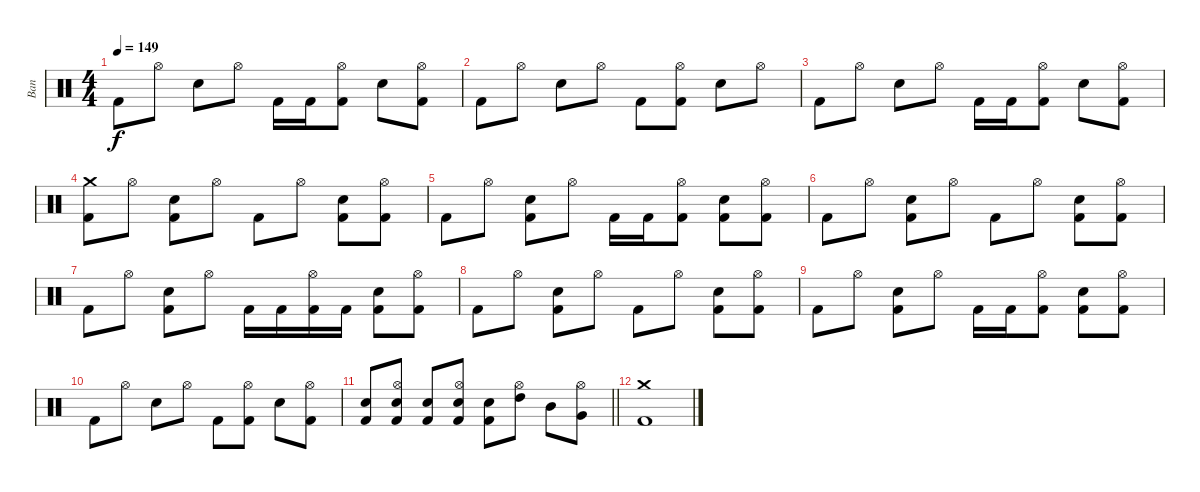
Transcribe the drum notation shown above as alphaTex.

\track ("Ban" "Ban") {instrument percussion}
\staff {score}
\articulation defaults
\ts (4 4)
\tempo 149
\clef neutral
\ks c "Kick (hit) 2".8{dy f} "Hi-Hat (open)".8 "Electric Snare (hit)".8 "Hi-Hat (open)".8 "Kick (hit) 2".16 "Kick (hit) 2".16
("Hi-Hat (open)" "Kick (hit) 2").8 "Electric Snare (hit)".8 ("Hi-Hat (open)" "Kick (hit) 2").8 |
"Kick (hit) 2".8 "Hi-Hat (open)".8 "Electric Snare (hit)".8 "Hi-Hat (open)".8 "Kick (hit) 2".8 ("Hi-Hat (open)" "Kick (hit) 2").8 "Electric Snare (hit)".8 "Hi-Hat (open)".8 |
"Kick (hit) 2".8 "Hi-Hat (open)".8 "Electric Snare (hit)".8 "Hi-Hat (open)".8 "Kick (hit) 2".16 "Kick (hit) 2".16 ("Hi-Hat (open)" "Kick (hit) 2").8 "Electric Snare (hit)".8 ("Hi-Hat (open)" "Kick (hit) 2").8 |
("Crash medium (hit)" "Kick (hit) 2").8 "Hi-Hat (open)".8 ("Electric Snare (hit)" "Kick (hit) 2").8 "Hi-Hat (open)".8 "Kick (hit) 2".8 "Hi-Hat (open)".8 ("Electric Snare (hit)" "Kick (hit) 2").8 ("Hi-Hat (open)" "Kick (hit) 2").8 |
"Kick (hit) 2".8 "Hi-Hat (open)".8 ("Electric Snare (hit)" "Kick (hit) 2").8 "Hi-Hat (open)".8 "Kick (hit) 2".16 "Kick (hit) 2".16 ("Hi-Hat (open)" "Kick (hit) 2").8 ("Electric Snare (hit)" "Kick (hit) 2").8 ("Hi-Hat (open)" "Kick (hit) 2").8 |
"Kick (hit) 2".8 "Hi-Hat (open)".8 ("Electric Snare (hit)" "Kick (hit) 2").8 "Hi-Hat (open)".8 "Kick (hit) 2".8 "Hi-Hat (open)".8 ("Electric Snare (hit)" "Kick (hit) 2").8 ("Hi-Hat (open)" "Kick (hit) 2").8 |
"Kick (hit) 2".8 "Hi-Hat (open)".8 ("Electric Snare (hit)" "Kick (hit) 2").8 "Hi-Hat (open)".8 "Kick (hit) 2".16 "Kick (hit) 2".16 ("Hi-Hat (open)" "Kick (hit) 2").16 "Kick (hit) 2".16 ("Electric Snare (hit)" "Kick (hit) 2").8 ("Hi-Hat (open)" "Kick (hit) 2").8 |
"Kick (hit) 2".8 "Hi-Hat (open)".8 ("Electric Snare (hit)" "Kick (hit) 2").8 "Hi-Hat (open)".8 "Kick (hit) 2".8 "Hi-Hat (open)".8 ("Electric Snare (hit)" "Kick (hit) 2").8 ("Hi-Hat (open)" "Kick (hit) 2").8 |
"Kick (hit) 2".8 "Hi-Hat (open)".8 ("Electric Snare (hit)" "Kick (hit) 2").8 "Hi-Hat (open)".8 "Kick (hit) 2".16 "Kick (hit) 2".16 ("Hi-Hat (open)" "Kick (hit) 2").8 ("Electric Snare (hit)" "Kick (hit) 2").8 ("Hi-Hat (open)" "Kick (hit) 2").8 |
"Kick (hit) 2".8 "Hi-Hat (open)".8 "Electric Snare (hit)".8 "Hi-Hat (open)".8 "Kick (hit) 2".8 ("Hi-Hat (open)" "Kick (hit) 2").8 "Electric Snare (hit)".8 ("Hi-Hat (open)" "Kick (hit) 2").8 |
\barLineRight lightlight
("Electric Snare (hit)" "Kick (hit) 2").8 ("Hi-Hat (open)" "Electric Snare (hit)" "Kick (hit) 2").8 ("Electric Snare (hit)" "Kick (hit) 2").8 ("Hi-Hat (open)" "Electric Snare (hit)" "Kick (hit) 2").8 ("Electric Snare (hit)" "Kick (hit) 2").8 ("Hi-Hat (open)" "High Tom (hit)").8 "Mid Tom (hit)".8 ("Hi-Hat (open)" "Very Low Tom (hit)").8 |
("Crash medium (hit)" "Kick (hit) 2").1
